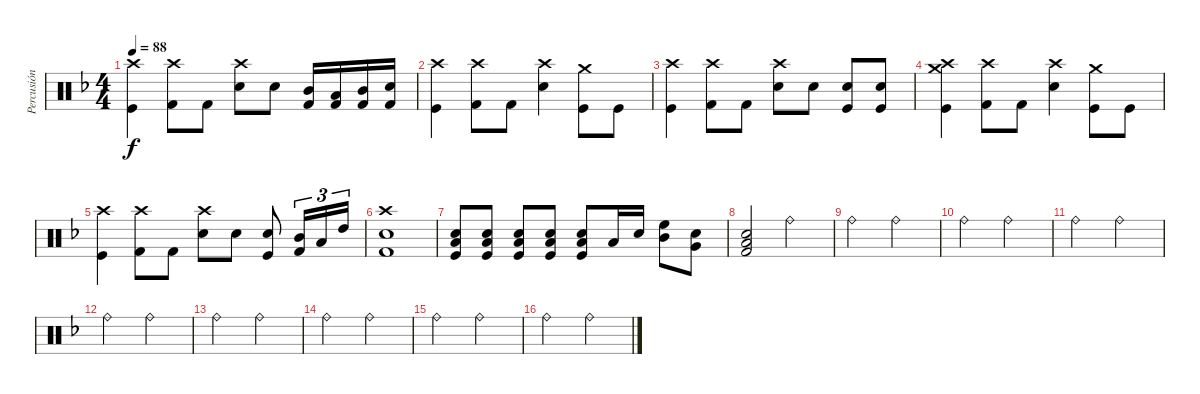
\track ("Percusión" "Percusión") {instrument percussion}
\staff {score}
\articulation defaults
\ts (4 4)
\tempo 88
\clef neutral
\ks f
("Crash high (hit)" "Kick (hit)").4{dy f} ("Crash high (hit)" "Kick (hit) 2").8 "Kick (hit) 2".8 ("Snare (hit) 2" "Crash high (hit)").8 "Snare (hit) 2".8 ("Mid Tom (hit)" "Kick (hit) 2").16 ("Low Tom (hit)" "Kick (hit) 2").16 ("Mid Tom (hit)" "Kick (hit) 2").16 ("Snare (hit) 2" "Kick (hit) 2").16 |
("Crash high (hit)" "Kick (hit)").4 ("Crash high (hit)" "Kick (hit) 2").8 "Kick (hit) 2".8 ("Snare (hit) 2" "Crash high (hit)").4 ("Kick (hit)" "Crash medium (hit)").8 "Kick (hit)".8 |
("Crash high (hit)" "Kick (hit)").4 ("Crash high (hit)" "Kick (hit) 2").8 "Kick (hit) 2".8 ("Snare (hit) 2" "Crash high (hit)").8 "Snare (hit) 2".8 ("Kick (hit)" "Snare (hit) 2").8 ("Kick (hit)" "Snare (hit) 2").8 |
("Crash high (hit)" "Kick (hit)" "Crash medium (hit)").4 ("Crash high (hit)" "Kick (hit) 2").8 "Kick (hit) 2".8 ("Snare (hit) 2" "Crash high (hit)").4 ("Kick (hit)" "Crash medium (hit)").8 "Kick (hit)".8 |
("Crash high (hit)" "Kick (hit)").4 ("Crash high (hit)" "Kick (hit) 2").8 "Kick (hit) 2".8 ("Snare (hit) 2" "Crash high (hit)").8 "Snare (hit) 2".8 ("Kick (hit)" "Snare (hit) 2").8 ("Mid Tom (hit)" "Kick (hit) 2").16{tu (3 2)} "Low Tom (hit)".16{tu (3 2)} "High Tom (hit)".16{tu (3 2)} |
("Crash high (hit)" "Kick (hit) 2" "Snare (hit) 2").1 |
("Snare (hit) 2" "Low Floor Tom (hit)" "Kick (hit)").8 ("Snare (hit) 2" "Low Floor Tom (hit)" "Kick (hit)").8 ("Snare (hit) 2" "Low Floor Tom (hit)" "Kick (hit)").8 ("Snare (hit) 2" "Low Floor Tom (hit)" "Kick (hit)").8 ("Snare (hit) 2" "Low Floor Tom (hit)" "Kick (hit)").8 "Low Floor Tom (hit)".16 "Snare (hit) 2".16 ("High Floor Tom (hit)" "Mid Tom (hit)").8 ("Snare (hit) 2" "Very Low Tom (hit)").8 |
("Snare (hit) 2" "Kick (hit) 2" "Low Floor Tom (hit)").2 "Ride (bell)".2 |
"Ride (bell)".2 "Ride (bell)".2 |
"Ride (bell)".2 "Ride (bell)".2 |
"Ride (bell)".2 "Ride (bell)".2 |
"Ride (bell)".2 "Ride (bell)".2 |
"Ride (bell)".2 "Ride (bell)".2 |
"Ride (bell)".2 "Ride (bell)".2 |
"Ride (bell)".2 "Ride (bell)".2 |
"Ride (bell)".2 "Ride (bell)".2
